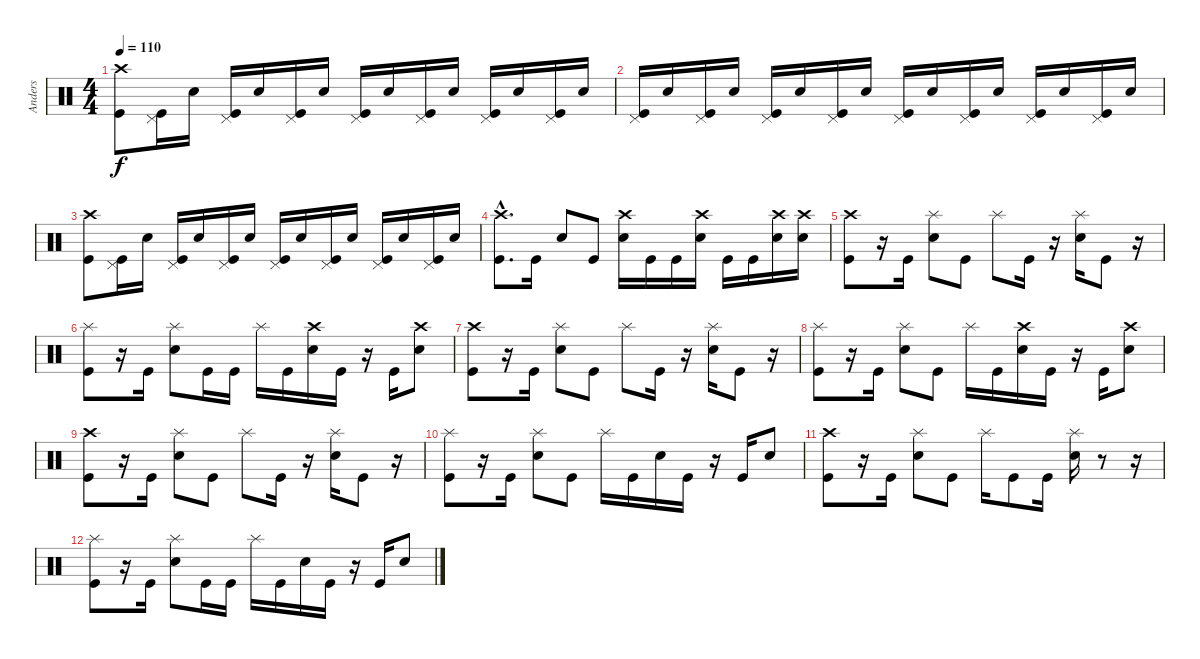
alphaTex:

\track ("Anders" "Anders") {instrument percussion}
\staff {score}
\articulation defaults
\ts (4 4)
\tempo 110
\clef neutral
\ks c
("Crash high (hit)" "Kick (hit)").8{dy f} ("Pedal Hi-Hat (hit)" "Kick (hit)").16 "Snare (hit) 2".16 ("Pedal Hi-Hat (hit)" "Kick (hit)").16 "Snare (hit) 2".16 ("Pedal Hi-Hat (hit)" "Kick (hit)").16 "Snare (hit) 2".16 ("Pedal Hi-Hat (hit)" "Kick (hit)").16 "Snare (hit) 2".16 ("Pedal Hi-Hat (hit)" "Kick (hit)").16 "Snare (hit) 2".16 ("Pedal Hi-Hat (hit)" "Kick (hit)").16 "Snare (hit) 2".16 ("Pedal Hi-Hat (hit)" "Kick (hit)").16 "Snare (hit) 2".16 |
("Pedal Hi-Hat (hit)" "Kick (hit)").16 "Snare (hit) 2".16 ("Pedal Hi-Hat (hit)" "Kick (hit)").16 "Snare (hit) 2".16 ("Pedal Hi-Hat (hit)" "Kick (hit)").16 "Snare (hit) 2".16 ("Pedal Hi-Hat (hit)" "Kick (hit)").16 "Snare (hit) 2".16 ("Pedal Hi-Hat (hit)" "Kick (hit)").16 "Snare (hit) 2".16 ("Pedal Hi-Hat (hit)" "Kick (hit)").16 "Snare (hit) 2".16 ("Pedal Hi-Hat (hit)" "Kick (hit)").16 "Snare (hit) 2".16 ("Pedal Hi-Hat (hit)" "Kick (hit)").16 "Snare (hit) 2".16 |
("Crash high (hit)" "Kick (hit)").8 ("Pedal Hi-Hat (hit)" "Kick (hit)").16 "Snare (hit) 2".16 ("Pedal Hi-Hat (hit)" "Kick (hit)").16 "Snare (hit) 2".16 ("Pedal Hi-Hat (hit)" "Kick (hit)").16 "Snare (hit) 2".16 ("Pedal Hi-Hat (hit)" "Kick (hit)").16 "Snare (hit) 2".16 ("Pedal Hi-Hat (hit)" "Kick (hit)").16 "Snare (hit) 2".16 ("Pedal Hi-Hat (hit)" "Kick (hit)").16 "Snare (hit) 2".16 ("Pedal Hi-Hat (hit)" "Kick (hit)").16 "Snare (hit) 2".16 |
("Crash high (hit)"{hac} "Kick (hit)"{hac}).8{d} "Kick (hit)".16 "Snare (hit) 2".8 "Kick (hit)".8 ("Crash high (hit)" "Snare (hit) 2").16 "Kick (hit)".16 "Kick (hit)".16 ("Crash high (hit)" "Snare (hit) 2").16 "Kick (hit)".16 "Kick (hit)".16 ("Crash high (hit)" "Snare (hit) 2").16 ("Crash high (hit)" "Snare (hit) 2").16 |
("Crash high (hit)" "Kick (hit)").8 r.16 "Kick (hit)".16 ("Splash (hit)" "Snare (hit) 2").8 "Kick (hit)".8 "Splash (hit)".8 "Kick (hit)".16 r.16 ("Splash (hit)" "Snare (hit) 2").16 "Kick (hit)".8 r.16 |
("Splash (hit)" "Kick (hit)").8 r.16 "Kick (hit)".16 ("Splash (hit)" "Snare (hit) 2").8 "Kick (hit)".16 "Kick (hit)".16 "Splash (hit)".16 "Kick (hit)".16 ("Crash high (hit)" "Snare (hit) 2").16 "Kick (hit)".16 r.16 "Kick (hit)".16 ("Crash high (hit)" "Snare (hit) 2").8 |
("Crash high (hit)" "Kick (hit)").8 r.16 "Kick (hit)".16 ("Splash (hit)" "Snare (hit) 2").8 "Kick (hit)".8 "Splash (hit)".8 "Kick (hit)".16 r.16 ("Splash (hit)" "Snare (hit) 2").16 "Kick (hit)".8 r.16 |
("Splash (hit)" "Kick (hit)").8 r.16 "Kick (hit)".16 ("Splash (hit)" "Snare (hit) 2").8 "Kick (hit)".8 "Splash (hit)".16 "Kick (hit)".16 ("Crash high (hit)" "Snare (hit) 2").16 "Kick (hit)".16 r.16 "Kick (hit)".16 ("Crash high (hit)" "Snare (hit) 2").8 |
("Crash high (hit)" "Kick (hit)").8 r.16 "Kick (hit)".16 ("Splash (hit)" "Snare (hit) 2").8 "Kick (hit)".8 "Splash (hit)".8 "Kick (hit)".16 r.16 ("Splash (hit)" "Snare (hit) 2").16 "Kick (hit)".8 r.16 |
("Splash (hit)" "Kick (hit)").8 r.16 "Kick (hit)".16 ("Splash (hit)" "Snare (hit) 2").8 "Kick (hit)".8 "Splash (hit)".16 "Kick (hit)".16 "Snare (hit) 2".16 "Kick (hit)".16 r.16 "Kick (hit)".16 "Snare (hit) 2".8 |
("Crash high (hit)" "Kick (hit)").8 r.16 "Kick (hit)".16 ("Splash (hit)" "Snare (hit) 2").8 "Kick (hit)".8 "Splash (hit)".16 "Kick (hit)".8 "Kick (hit)".16 ("Splash (hit)" "Snare (hit) 2").16 r.8 r.16 |
("Splash (hit)" "Kick (hit)").8 r.16 "Kick (hit)".16 ("Splash (hit)" "Snare (hit) 2").8 "Kick (hit)".16 "Kick (hit)".16 "Splash (hit)".16 "Kick (hit)".16 "Snare (hit) 2".16 "Kick (hit)".16 r.16 "Kick (hit)".16 "Snare (hit) 2".8
